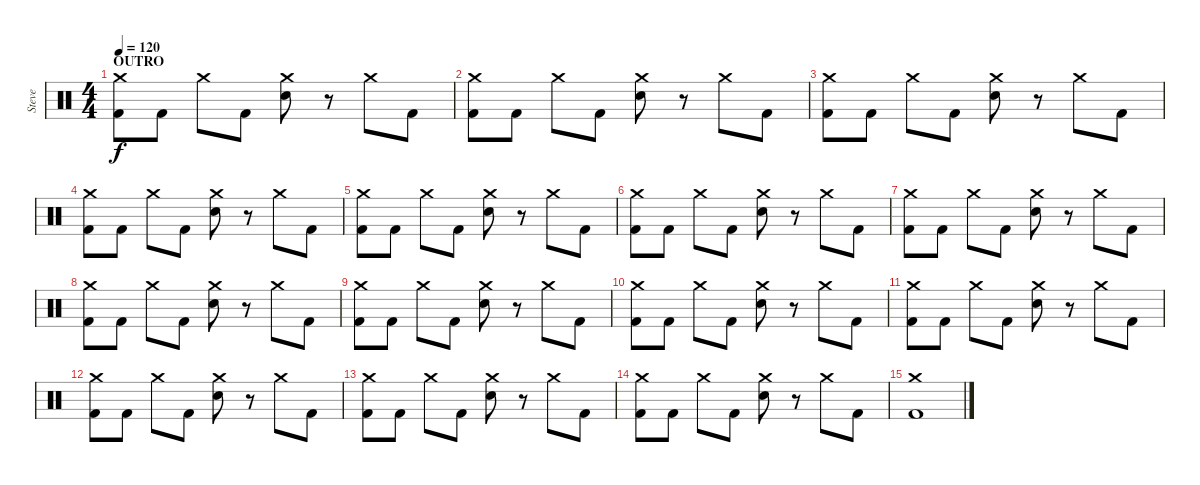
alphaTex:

\track ("Steve" "Steve") {instrument percussion}
\staff {score}
\articulation defaults
\ts (4 4)
\section ("" "OUTRO")
\tempo 120
\clef neutral
\ks c
("Crash medium (hit)" "Kick (hit) 2").8{dy f} "Kick (hit) 2".8 "Crash medium (hit)".8 "Kick (hit) 2".8 ("Crash medium (hit)" "Electric Snare (hit)").8 r.8 "Crash medium (hit)".8 "Kick (hit) 2".8 |
("Crash medium (hit)" "Kick (hit) 2").8 "Kick (hit) 2".8 "Crash medium (hit)".8 "Kick (hit) 2".8 ("Crash medium (hit)" "Electric Snare (hit)").8 r.8 "Crash medium (hit)".8 "Kick (hit) 2".8 |
("Crash medium (hit)" "Kick (hit) 2").8 "Kick (hit) 2".8 "Crash medium (hit)".8 "Kick (hit) 2".8 ("Crash medium (hit)" "Electric Snare (hit)").8 r.8 "Crash medium (hit)".8 "Kick (hit) 2".8 |
("Crash medium (hit)" "Kick (hit) 2").8 "Kick (hit) 2".8 "Crash medium (hit)".8 "Kick (hit) 2".8 ("Crash medium (hit)" "Electric Snare (hit)").8 r.8 "Crash medium (hit)".8 "Kick (hit) 2".8 |
("Crash medium (hit)" "Kick (hit) 2").8 "Kick (hit) 2".8 "Crash medium (hit)".8 "Kick (hit) 2".8 ("Crash medium (hit)" "Electric Snare (hit)").8 r.8 "Crash medium (hit)".8 "Kick (hit) 2".8 |
("Crash medium (hit)" "Kick (hit) 2").8 "Kick (hit) 2".8 "Crash medium (hit)".8 "Kick (hit) 2".8 ("Crash medium (hit)" "Electric Snare (hit)").8 r.8 "Crash medium (hit)".8 "Kick (hit) 2".8 |
("Crash medium (hit)" "Kick (hit) 2").8 "Kick (hit) 2".8 "Crash medium (hit)".8 "Kick (hit) 2".8 ("Crash medium (hit)" "Electric Snare (hit)").8 r.8 "Crash medium (hit)".8 "Kick (hit) 2".8 |
("Crash medium (hit)" "Kick (hit) 2").8 "Kick (hit) 2".8 "Crash medium (hit)".8 "Kick (hit) 2".8 ("Crash medium (hit)" "Electric Snare (hit)").8 r.8 "Crash medium (hit)".8 "Kick (hit) 2".8 |
("Crash medium (hit)" "Kick (hit) 2").8 "Kick (hit) 2".8 "Crash medium (hit)".8 "Kick (hit) 2".8 ("Crash medium (hit)" "Electric Snare (hit)").8 r.8 "Crash medium (hit)".8 "Kick (hit) 2".8 |
("Crash medium (hit)" "Kick (hit) 2").8 "Kick (hit) 2".8 "Crash medium (hit)".8 "Kick (hit) 2".8 ("Crash medium (hit)" "Electric Snare (hit)").8 r.8 "Crash medium (hit)".8 "Kick (hit) 2".8 |
("Crash medium (hit)" "Kick (hit) 2").8 "Kick (hit) 2".8 "Crash medium (hit)".8 "Kick (hit) 2".8 ("Crash medium (hit)" "Electric Snare (hit)").8 r.8 "Crash medium (hit)".8 "Kick (hit) 2".8 |
("Crash medium (hit)" "Kick (hit) 2").8 "Kick (hit) 2".8 "Crash medium (hit)".8 "Kick (hit) 2".8 ("Crash medium (hit)" "Electric Snare (hit)").8 r.8 "Crash medium (hit)".8 "Kick (hit) 2".8 |
("Crash medium (hit)" "Kick (hit) 2").8 "Kick (hit) 2".8 "Crash medium (hit)".8 "Kick (hit) 2".8 ("Crash medium (hit)" "Electric Snare (hit)").8 r.8 "Crash medium (hit)".8 "Kick (hit) 2".8 |
("Crash medium (hit)" "Kick (hit) 2").8 "Kick (hit) 2".8 "Crash medium (hit)".8 "Kick (hit) 2".8 ("Crash medium (hit)" "Electric Snare (hit)").8 r.8 "Crash medium (hit)".8 "Kick (hit) 2".8 |
("Crash medium (hit)" "Kick (hit) 2").1
